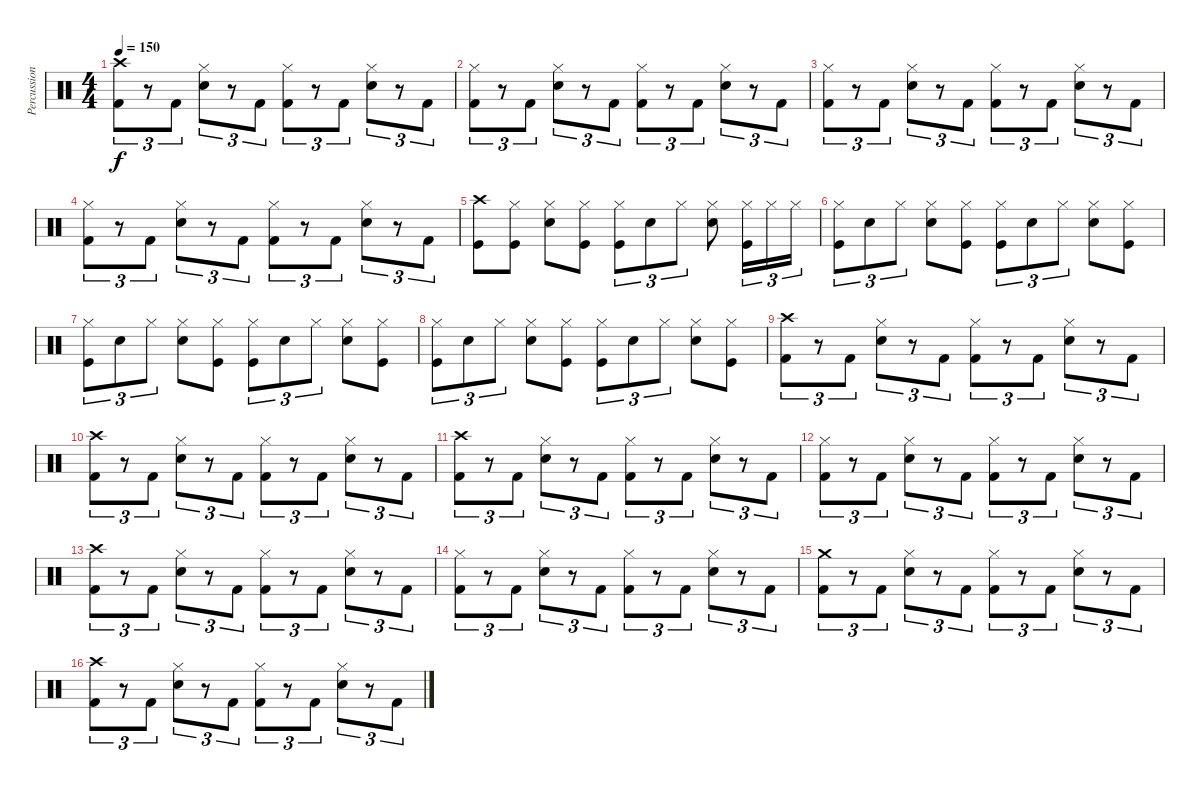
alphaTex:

\track ("Percussions" "Percussion") {instrument percussion}
\staff {score}
\articulation defaults
\ts (4 4)
\tempo 150
\clef neutral
\ks c
("Crash high (hit)" "Kick (hit) 2").8{tu (3 2) dy f} r.8{tu (3 2)} "Kick (hit) 2".8{tu (3 2)} ("Hi-Hat (closed)" "Snare (hit) 2").8{tu (3 2)} r.8{tu (3 2)} "Kick (hit) 2".8{tu (3 2)} ("Hi-Hat (closed)" "Kick (hit) 2").8{tu (3 2)} r.8{tu (3 2)} "Kick (hit) 2".8{tu (3 2)} ("Hi-Hat (closed)" "Snare (hit) 2").8{tu (3 2)} r.8{tu (3 2)} "Kick (hit) 2".8{tu (3 2)} |
("Hi-Hat (closed)" "Kick (hit) 2").8{tu (3 2)} r.8{tu (3 2)} "Kick (hit) 2".8{tu (3 2)} ("Hi-Hat (closed)" "Snare (hit) 2").8{tu (3 2)} r.8{tu (3 2)} "Kick (hit) 2".8{tu (3 2)} ("Hi-Hat (closed)" "Kick (hit) 2").8{tu (3 2)} r.8{tu (3 2)} "Kick (hit) 2".8{tu (3 2)} ("Hi-Hat (closed)" "Snare (hit) 2").8{tu (3 2)} r.8{tu (3 2)} "Kick (hit) 2".8{tu (3 2)} |
("Hi-Hat (closed)" "Kick (hit) 2").8{tu (3 2)} r.8{tu (3 2)} "Kick (hit) 2".8{tu (3 2)} ("Hi-Hat (closed)" "Snare (hit) 2").8{tu (3 2)} r.8{tu (3 2)} "Kick (hit) 2".8{tu (3 2)} ("Hi-Hat (closed)" "Kick (hit) 2").8{tu (3 2)} r.8{tu (3 2)} "Kick (hit) 2".8{tu (3 2)} ("Hi-Hat (closed)" "Snare (hit) 2").8{tu (3 2)} r.8{tu (3 2)} "Kick (hit) 2".8{tu (3 2)} |
("Hi-Hat (closed)" "Kick (hit) 2").8{tu (3 2)} r.8{tu (3 2)} "Kick (hit) 2".8{tu (3 2)} ("Hi-Hat (closed)" "Snare (hit) 2").8{tu (3 2)} r.8{tu (3 2)} "Kick (hit) 2".8{tu (3 2)} ("Hi-Hat (closed)" "Kick (hit) 2").8{tu (3 2)} r.8{tu (3 2)} "Kick (hit) 2".8{tu (3 2)} ("Hi-Hat (closed)" "Snare (hit) 2").8{tu (3 2)} r.8{tu (3 2)} "Kick (hit) 2".8{tu (3 2)} |
("Crash high (hit)" "Kick (hit)").8 ("Hi-Hat (closed)" "Kick (hit)").8 ("Hi-Hat (closed)" "Electric Snare (hit)").8 ("Hi-Hat (closed)" "Kick (hit)").8 ("Hi-Hat (closed)" "Kick (hit)").8{tu (3 2)} "Electric Snare (hit)".8{tu (3 2)} "Hi-Hat (closed)".8{tu (3 2)} ("Hi-Hat (closed)" "Electric Snare (hit)").8 ("Hi-Hat (closed)" "Kick (hit)").16{tu (3 2)} "Hi-Hat (closed)".16{tu (3 2)} "Hi-Hat (closed)".16{tu (3 2)} |
("Hi-Hat (closed)" "Kick (hit)").8{tu (3 2)} "Electric Snare (hit)".8{tu (3 2)} "Hi-Hat (closed)".8{tu (3 2)} ("Hi-Hat (closed)" "Electric Snare (hit)").8 ("Hi-Hat (closed)" "Kick (hit)").8 ("Hi-Hat (closed)" "Kick (hit)").8{tu (3 2)} "Electric Snare (hit)".8{tu (3 2)} "Hi-Hat (closed)".8{tu (3 2)} ("Hi-Hat (closed)" "Electric Snare (hit)").8 ("Hi-Hat (closed)" "Kick (hit)").8 |
("Hi-Hat (closed)" "Kick (hit)").8{tu (3 2)} "Electric Snare (hit)".8{tu (3 2)} "Hi-Hat (closed)".8{tu (3 2)} ("Hi-Hat (closed)" "Electric Snare (hit)").8 ("Hi-Hat (closed)" "Kick (hit)").8 ("Hi-Hat (closed)" "Kick (hit)").8{tu (3 2)} "Electric Snare (hit)".8{tu (3 2)} "Hi-Hat (closed)".8{tu (3 2)} ("Hi-Hat (closed)" "Electric Snare (hit)").8 ("Hi-Hat (closed)" "Kick (hit)").8 |
("Hi-Hat (closed)" "Kick (hit)").8{tu (3 2)} "Electric Snare (hit)".8{tu (3 2)} "Hi-Hat (closed)".8{tu (3 2)} ("Hi-Hat (closed)" "Electric Snare (hit)").8 ("Hi-Hat (closed)" "Kick (hit)").8 ("Hi-Hat (closed)" "Kick (hit)").8{tu (3 2)} "Electric Snare (hit)".8{tu (3 2)} "Hi-Hat (closed)".8{tu (3 2)} ("Hi-Hat (closed)" "Electric Snare (hit)").8 ("Hi-Hat (closed)" "Kick (hit)").8 |
("Crash high (hit)" "Kick (hit) 2").8{tu (3 2)} r.8{tu (3 2)} "Kick (hit) 2".8{tu (3 2)} ("Hi-Hat (closed)" "Snare (hit) 2").8{tu (3 2)} r.8{tu (3 2)} "Kick (hit) 2".8{tu (3 2)} ("Hi-Hat (closed)" "Kick (hit) 2").8{tu (3 2)} r.8{tu (3 2)} "Kick (hit) 2".8{tu (3 2)} ("Hi-Hat (closed)" "Snare (hit) 2").8{tu (3 2)} r.8{tu (3 2)} "Kick (hit) 2".8{tu (3 2)} |
("Crash high (hit)" "Kick (hit) 2").8{tu (3 2)} r.8{tu (3 2)} "Kick (hit) 2".8{tu (3 2)} ("Hi-Hat (closed)" "Snare (hit) 2").8{tu (3 2)} r.8{tu (3 2)} "Kick (hit) 2".8{tu (3 2)} ("Hi-Hat (closed)" "Kick (hit) 2").8{tu (3 2)} r.8{tu (3 2)} "Kick (hit) 2".8{tu (3 2)} ("Hi-Hat (closed)" "Snare (hit) 2").8{tu (3 2)} r.8{tu (3 2)} "Kick (hit) 2".8{tu (3 2)} |
("Crash high (hit)" "Kick (hit) 2").8{tu (3 2)} r.8{tu (3 2)} "Kick (hit) 2".8{tu (3 2)} ("Hi-Hat (closed)" "Snare (hit) 2").8{tu (3 2)} r.8{tu (3 2)} "Kick (hit) 2".8{tu (3 2)} ("Hi-Hat (closed)" "Kick (hit) 2").8{tu (3 2)} r.8{tu (3 2)} "Kick (hit) 2".8{tu (3 2)} ("Hi-Hat (closed)" "Snare (hit) 2").8{tu (3 2)} r.8{tu (3 2)} "Kick (hit) 2".8{tu (3 2)} |
("Hi-Hat (closed)" "Kick (hit) 2").8{tu (3 2)} r.8{tu (3 2)} "Kick (hit) 2".8{tu (3 2)} ("Hi-Hat (closed)" "Snare (hit) 2").8{tu (3 2)} r.8{tu (3 2)} "Kick (hit) 2".8{tu (3 2)} ("Hi-Hat (closed)" "Kick (hit) 2").8{tu (3 2)} r.8{tu (3 2)} "Kick (hit) 2".8{tu (3 2)} ("Hi-Hat (closed)" "Snare (hit) 2").8{tu (3 2)} r.8{tu (3 2)} "Kick (hit) 2".8{tu (3 2)} |
("Crash high (hit)" "Kick (hit) 2").8{tu (3 2)} r.8{tu (3 2)} "Kick (hit) 2".8{tu (3 2)} ("Hi-Hat (closed)" "Snare (hit) 2").8{tu (3 2)} r.8{tu (3 2)} "Kick (hit) 2".8{tu (3 2)} ("Hi-Hat (closed)" "Kick (hit) 2").8{tu (3 2)} r.8{tu (3 2)} "Kick (hit) 2".8{tu (3 2)} ("Hi-Hat (closed)" "Snare (hit) 2").8{tu (3 2)} r.8{tu (3 2)} "Kick (hit) 2".8{tu (3 2)} |
("Hi-Hat (closed)" "Kick (hit) 2").8{tu (3 2)} r.8{tu (3 2)} "Kick (hit) 2".8{tu (3 2)} ("Hi-Hat (closed)" "Snare (hit) 2").8{tu (3 2)} r.8{tu (3 2)} "Kick (hit) 2".8{tu (3 2)} ("Hi-Hat (closed)" "Kick (hit) 2").8{tu (3 2)} r.8{tu (3 2)} "Kick (hit) 2".8{tu (3 2)} ("Hi-Hat (closed)" "Snare (hit) 2").8{tu (3 2)} r.8{tu (3 2)} "Kick (hit) 2".8{tu (3 2)} |
("Crash medium (hit)" "Kick (hit) 2").8{tu (3 2)} r.8{tu (3 2)} "Kick (hit) 2".8{tu (3 2)} ("Hi-Hat (closed)" "Snare (hit) 2").8{tu (3 2)} r.8{tu (3 2)} "Kick (hit) 2".8{tu (3 2)} ("Hi-Hat (closed)" "Kick (hit) 2").8{tu (3 2)} r.8{tu (3 2)} "Kick (hit) 2".8{tu (3 2)} ("Hi-Hat (closed)" "Snare (hit) 2").8{tu (3 2)} r.8{tu (3 2)} "Kick (hit) 2".8{tu (3 2)} |
("Crash high (hit)" "Kick (hit) 2").8{tu (3 2)} r.8{tu (3 2)} "Kick (hit) 2".8{tu (3 2)} ("Hi-Hat (closed)" "Snare (hit) 2").8{tu (3 2)} r.8{tu (3 2)} "Kick (hit) 2".8{tu (3 2)} ("Hi-Hat (closed)" "Kick (hit) 2").8{tu (3 2)} r.8{tu (3 2)} "Kick (hit) 2".8{tu (3 2)} ("Hi-Hat (closed)" "Snare (hit) 2").8{tu (3 2)} r.8{tu (3 2)} "Kick (hit) 2".8{tu (3 2)}
